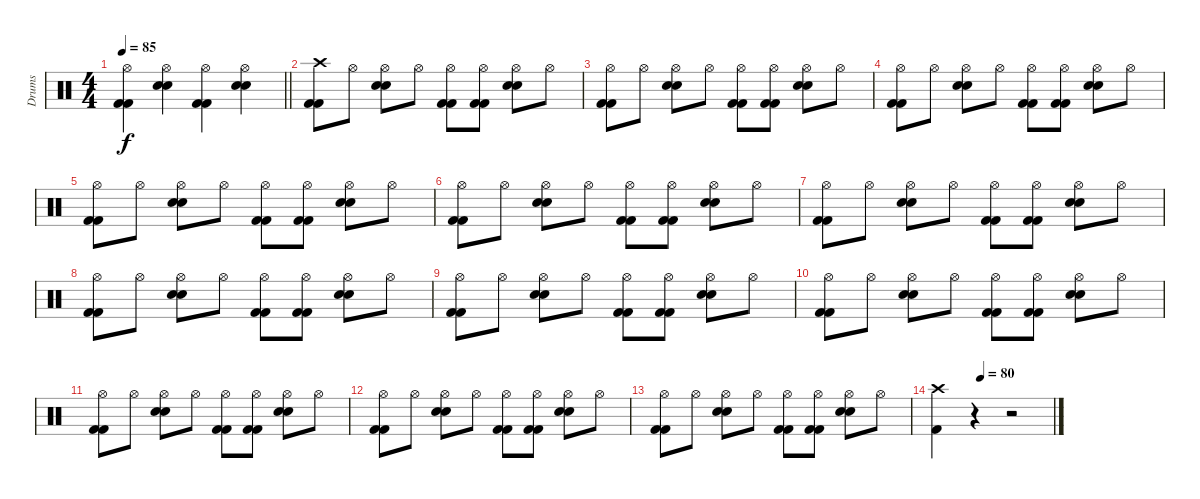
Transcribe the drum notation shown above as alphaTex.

\track ("Drums" "Drums") {instrument percussion}
\staff {score}
\articulation defaults
\ts (4 4)
\tempo 85
\clef neutral
\barLineRight lightlight
\ks c
("Hi-Hat (open)" "Kick (hit) 2" "Kick (hit) 2").4{dy f} ("Electric Snare (hit)" "Electric Snare (hit)" "Hi-Hat (open)").4 ("Hi-Hat (open)" "Kick (hit) 2" "Kick (hit) 2").4 ("Electric Snare (hit)" "Electric Snare (hit)" "Hi-Hat (open)").4 |
("Crash high (hit)" "Kick (hit) 2" "Kick (hit) 2").8 "Hi-Hat (open)".8 ("Electric Snare (hit)" "Hi-Hat (open)" "Electric Snare (hit)").8 "Hi-Hat (open)".8 ("Hi-Hat (open)" "Kick (hit) 2" "Kick (hit) 2").8 ("Hi-Hat (open)" "Kick (hit) 2" "Kick (hit) 2").8 ("Hi-Hat (open)" "Electric Snare (hit)" "Electric Snare (hit)").8 "Hi-Hat (open)".8 |
("Hi-Hat (open)" "Kick (hit) 2" "Kick (hit) 2").8 "Hi-Hat (open)".8 ("Electric Snare (hit)" "Hi-Hat (open)" "Electric Snare (hit)").8 "Hi-Hat (open)".8 ("Hi-Hat (open)" "Kick (hit) 2" "Kick (hit) 2").8 ("Hi-Hat (open)" "Kick (hit) 2" "Kick (hit) 2").8 ("Hi-Hat (open)" "Electric Snare (hit)" "Electric Snare (hit)").8 "Hi-Hat (open)".8 |
("Hi-Hat (open)" "Kick (hit) 2" "Kick (hit) 2").8 "Hi-Hat (open)".8 ("Electric Snare (hit)" "Hi-Hat (open)" "Electric Snare (hit)").8 "Hi-Hat (open)".8 ("Hi-Hat (open)" "Kick (hit) 2" "Kick (hit) 2").8 ("Hi-Hat (open)" "Kick (hit) 2" "Kick (hit) 2").8 ("Hi-Hat (open)" "Electric Snare (hit)" "Electric Snare (hit)").8 "Hi-Hat (open)".8 |
("Hi-Hat (open)" "Kick (hit) 2" "Kick (hit) 2").8 "Hi-Hat (open)".8 ("Electric Snare (hit)" "Hi-Hat (open)" "Electric Snare (hit)").8 "Hi-Hat (open)".8 ("Hi-Hat (open)" "Kick (hit) 2" "Kick (hit) 2").8 ("Hi-Hat (open)" "Kick (hit) 2" "Kick (hit) 2").8 ("Hi-Hat (open)" "Electric Snare (hit)" "Electric Snare (hit)").8 "Hi-Hat (open)".8 |
("Hi-Hat (open)" "Kick (hit) 2" "Kick (hit) 2").8 "Hi-Hat (open)".8 ("Electric Snare (hit)" "Hi-Hat (open)" "Electric Snare (hit)").8 "Hi-Hat (open)".8 ("Hi-Hat (open)" "Kick (hit) 2" "Kick (hit) 2").8 ("Hi-Hat (open)" "Kick (hit) 2" "Kick (hit) 2").8 ("Hi-Hat (open)" "Electric Snare (hit)" "Electric Snare (hit)").8 "Hi-Hat (open)".8 |
("Hi-Hat (open)" "Kick (hit) 2" "Kick (hit) 2").8 "Hi-Hat (open)".8 ("Electric Snare (hit)" "Hi-Hat (open)" "Electric Snare (hit)").8 "Hi-Hat (open)".8 ("Hi-Hat (open)" "Kick (hit) 2" "Kick (hit) 2").8 ("Hi-Hat (open)" "Kick (hit) 2" "Kick (hit) 2").8 ("Hi-Hat (open)" "Electric Snare (hit)" "Electric Snare (hit)").8 "Hi-Hat (open)".8 |
("Hi-Hat (open)" "Kick (hit) 2" "Kick (hit) 2").8 "Hi-Hat (open)".8 ("Electric Snare (hit)" "Hi-Hat (open)" "Electric Snare (hit)").8 "Hi-Hat (open)".8 ("Hi-Hat (open)" "Kick (hit) 2" "Kick (hit) 2").8 ("Hi-Hat (open)" "Kick (hit) 2" "Kick (hit) 2").8 ("Hi-Hat (open)" "Electric Snare (hit)" "Electric Snare (hit)").8 "Hi-Hat (open)".8 |
("Hi-Hat (open)" "Kick (hit) 2" "Kick (hit) 2").8 "Hi-Hat (open)".8 ("Electric Snare (hit)" "Hi-Hat (open)" "Electric Snare (hit)").8 "Hi-Hat (open)".8 ("Hi-Hat (open)" "Kick (hit) 2" "Kick (hit) 2").8 ("Hi-Hat (open)" "Kick (hit) 2" "Kick (hit) 2").8 ("Hi-Hat (open)" "Electric Snare (hit)" "Electric Snare (hit)").8 "Hi-Hat (open)".8 |
("Hi-Hat (open)" "Kick (hit) 2" "Kick (hit) 2").8 "Hi-Hat (open)".8 ("Electric Snare (hit)" "Hi-Hat (open)" "Electric Snare (hit)").8 "Hi-Hat (open)".8 ("Hi-Hat (open)" "Kick (hit) 2" "Kick (hit) 2").8 ("Hi-Hat (open)" "Kick (hit) 2" "Kick (hit) 2").8 ("Hi-Hat (open)" "Electric Snare (hit)" "Electric Snare (hit)").8 "Hi-Hat (open)".8 |
("Hi-Hat (open)" "Kick (hit) 2" "Kick (hit) 2").8 "Hi-Hat (open)".8 ("Electric Snare (hit)" "Hi-Hat (open)" "Electric Snare (hit)").8 "Hi-Hat (open)".8 ("Hi-Hat (open)" "Kick (hit) 2" "Kick (hit) 2").8 ("Hi-Hat (open)" "Kick (hit) 2" "Kick (hit) 2").8 ("Hi-Hat (open)" "Electric Snare (hit)" "Electric Snare (hit)").8 "Hi-Hat (open)".8 |
("Hi-Hat (open)" "Kick (hit) 2" "Kick (hit) 2").8 "Hi-Hat (open)".8 ("Electric Snare (hit)" "Hi-Hat (open)" "Electric Snare (hit)").8 "Hi-Hat (open)".8 ("Hi-Hat (open)" "Kick (hit) 2" "Kick (hit) 2").8 ("Hi-Hat (open)" "Kick (hit) 2" "Kick (hit) 2").8 ("Hi-Hat (open)" "Electric Snare (hit)" "Electric Snare (hit)").8 "Hi-Hat (open)".8 |
("Hi-Hat (open)" "Kick (hit) 2" "Kick (hit) 2").8 "Hi-Hat (open)".8 ("Electric Snare (hit)" "Hi-Hat (open)" "Electric Snare (hit)").8 "Hi-Hat (open)".8 ("Hi-Hat (open)" "Kick (hit) 2" "Kick (hit) 2").8 ("Hi-Hat (open)" "Kick (hit) 2" "Kick (hit) 2").8 ("Hi-Hat (open)" "Electric Snare (hit)" "Electric Snare (hit)").8 "Hi-Hat (open)".8 |
\tempo (80 0.375)
("Crash high (hit)" "Kick (hit) 2").4 r.4 r.2
